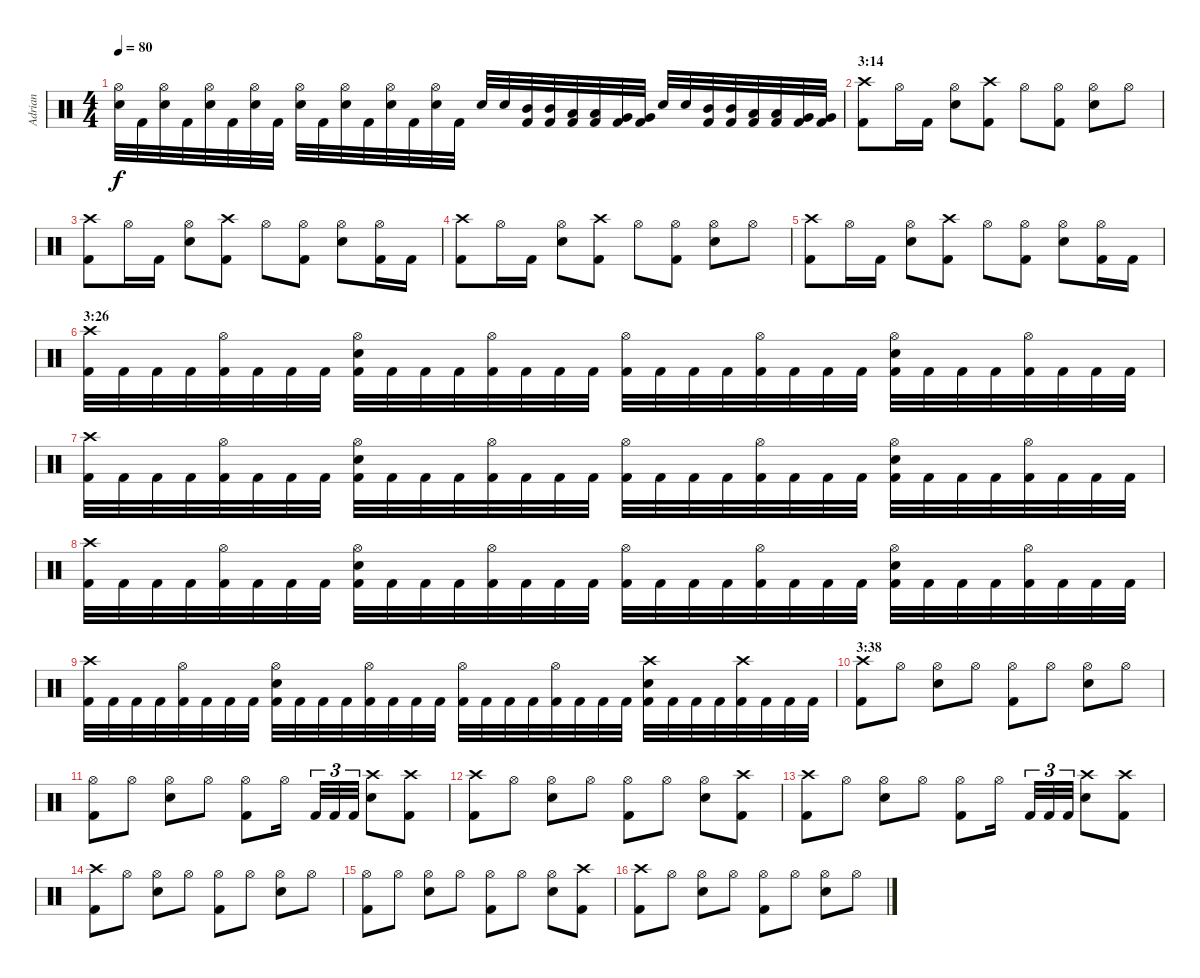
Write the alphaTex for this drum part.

\track ("Adrian" "Adrian") {instrument percussion}
\staff {score}
\articulation defaults
\ts (4 4)
\tempo 80
\clef neutral
\ks c
("Snare (hit) 2" "Hi-Hat (open)").32{dy f} "Kick (hit) 2".32 ("Snare (hit) 2" "Hi-Hat (open)").32 "Kick (hit) 2".32 ("Snare (hit) 2" "Hi-Hat (open)").32 "Kick (hit) 2".32 ("Snare (hit) 2" "Hi-Hat (open)").32 "Kick (hit) 2".32 ("Snare (hit) 2" "Hi-Hat (open)").32 "Kick (hit) 2".32 ("Snare (hit) 2" "Hi-Hat (open)").32 "Kick (hit) 2".32 ("Snare (hit) 2" "Hi-Hat (open)").32 "Kick (hit) 2".32 ("Snare (hit) 2" "Hi-Hat (open)").32 "Kick (hit) 2".32 "Snare (hit) 2".32 "Snare (hit) 2".32 ("Kick (hit) 2" "Mid Tom (hit)").32 ("Kick (hit) 2" "Mid Tom (hit)").32 ("Kick (hit) 2" "Low Tom (hit)").32 ("Kick (hit) 2" "Low Tom (hit)").32 ("Kick (hit) 2" "Very Low Tom (hit)").32 ("Kick (hit) 2" "Very Low Tom (hit)").32 "Snare (hit) 2".32 "Snare (hit) 2".32 ("Kick (hit) 2" "Mid Tom (hit)").32 ("Kick (hit) 2" "Mid Tom (hit)").32 ("Kick (hit) 2" "Low Tom (hit)").32 ("Kick (hit) 2" "Low Tom (hit)").32 ("Kick (hit) 2" "Very Low Tom (hit)").32 ("Kick (hit) 2" "Very Low Tom (hit)").32 |
\section ("" "3:14")
("Kick (hit) 2" "Crash high (hit)").8 "Hi-Hat (open)".16 "Kick (hit) 2".16 ("Snare (hit) 2" "Hi-Hat (open)").8 ("Kick (hit) 2" "Crash high (hit)").8 "Hi-Hat (open)".8 ("Kick (hit) 2" "Hi-Hat (open)").8 ("Snare (hit) 2" "Hi-Hat (open)").8 "Hi-Hat (open)".8 |
("Kick (hit) 2" "Crash high (hit)").8 "Hi-Hat (open)".16 "Kick (hit) 2".16 ("Snare (hit) 2" "Hi-Hat (open)").8 ("Kick (hit) 2" "Crash high (hit)").8 "Hi-Hat (open)".8 ("Kick (hit) 2" "Hi-Hat (open)").8 ("Snare (hit) 2" "Hi-Hat (open)").8 ("Kick (hit) 2" "Hi-Hat (open)").16 "Kick (hit) 2".16 |
("Kick (hit) 2" "Crash high (hit)").8 "Hi-Hat (open)".16 "Kick (hit) 2".16 ("Snare (hit) 2" "Hi-Hat (open)").8 ("Kick (hit) 2" "Crash high (hit)").8 "Hi-Hat (open)".8 ("Kick (hit) 2" "Hi-Hat (open)").8 ("Snare (hit) 2" "Hi-Hat (open)").8 "Hi-Hat (open)".8 |
("Kick (hit) 2" "Crash high (hit)").8 "Hi-Hat (open)".16 "Kick (hit) 2".16 ("Snare (hit) 2" "Hi-Hat (open)").8 ("Kick (hit) 2" "Crash high (hit)").8 "Hi-Hat (open)".8 ("Kick (hit) 2" "Hi-Hat (open)").8 ("Snare (hit) 2" "Hi-Hat (open)").8 ("Kick (hit) 2" "Hi-Hat (open)").16 "Kick (hit) 2".16 |
\section ("" "3:26")
("Kick (hit) 2" "Crash high (hit)").32 "Kick (hit) 2".32 "Kick (hit) 2".32 "Kick (hit) 2".32 ("Kick (hit) 2" "Hi-Hat (open)").32 "Kick (hit) 2".32 "Kick (hit) 2".32 "Kick (hit) 2".32 ("Kick (hit) 2" "Snare (hit) 2" "Hi-Hat (open)").32 "Kick (hit) 2".32 "Kick (hit) 2".32 "Kick (hit) 2".32 ("Kick (hit) 2" "Hi-Hat (open)").32 "Kick (hit) 2".32 "Kick (hit) 2".32 "Kick (hit) 2".32 ("Kick (hit) 2" "Hi-Hat (open)").32 "Kick (hit) 2".32 "Kick (hit) 2".32 "Kick (hit) 2".32 ("Kick (hit) 2" "Hi-Hat (open)").32 "Kick (hit) 2".32 "Kick (hit) 2".32 "Kick (hit) 2".32 ("Kick (hit) 2" "Snare (hit) 2" "Hi-Hat (open)").32 "Kick (hit) 2".32 "Kick (hit) 2".32 "Kick (hit) 2".32 ("Kick (hit) 2" "Hi-Hat (open)").32 "Kick (hit) 2".32 "Kick (hit) 2".32 "Kick (hit) 2".32 |
("Kick (hit) 2" "Crash high (hit)").32 "Kick (hit) 2".32 "Kick (hit) 2".32 "Kick (hit) 2".32 ("Kick (hit) 2" "Hi-Hat (open)").32 "Kick (hit) 2".32 "Kick (hit) 2".32 "Kick (hit) 2".32 ("Kick (hit) 2" "Snare (hit) 2" "Hi-Hat (open)").32 "Kick (hit) 2".32 "Kick (hit) 2".32 "Kick (hit) 2".32 ("Kick (hit) 2" "Hi-Hat (open)").32 "Kick (hit) 2".32 "Kick (hit) 2".32 "Kick (hit) 2".32 ("Kick (hit) 2" "Hi-Hat (open)").32 "Kick (hit) 2".32 "Kick (hit) 2".32 "Kick (hit) 2".32 ("Kick (hit) 2" "Hi-Hat (open)").32 "Kick (hit) 2".32 "Kick (hit) 2".32 "Kick (hit) 2".32 ("Kick (hit) 2" "Snare (hit) 2" "Hi-Hat (open)").32 "Kick (hit) 2".32 "Kick (hit) 2".32 "Kick (hit) 2".32 ("Kick (hit) 2" "Hi-Hat (open)").32 "Kick (hit) 2".32 "Kick (hit) 2".32 "Kick (hit) 2".32 |
("Kick (hit) 2" "Crash high (hit)").32 "Kick (hit) 2".32 "Kick (hit) 2".32 "Kick (hit) 2".32 ("Kick (hit) 2" "Hi-Hat (open)").32 "Kick (hit) 2".32 "Kick (hit) 2".32 "Kick (hit) 2".32 ("Kick (hit) 2" "Snare (hit) 2" "Hi-Hat (open)").32 "Kick (hit) 2".32 "Kick (hit) 2".32 "Kick (hit) 2".32 ("Kick (hit) 2" "Hi-Hat (open)").32 "Kick (hit) 2".32 "Kick (hit) 2".32 "Kick (hit) 2".32 ("Kick (hit) 2" "Hi-Hat (open)").32 "Kick (hit) 2".32 "Kick (hit) 2".32 "Kick (hit) 2".32 ("Kick (hit) 2" "Hi-Hat (open)").32 "Kick (hit) 2".32 "Kick (hit) 2".32 "Kick (hit) 2".32 ("Kick (hit) 2" "Snare (hit) 2" "Hi-Hat (open)").32 "Kick (hit) 2".32 "Kick (hit) 2".32 "Kick (hit) 2".32 ("Kick (hit) 2" "Hi-Hat (open)").32 "Kick (hit) 2".32 "Kick (hit) 2".32 "Kick (hit) 2".32 |
("Kick (hit) 2" "Crash high (hit)").32 "Kick (hit) 2".32 "Kick (hit) 2".32 "Kick (hit) 2".32 ("Kick (hit) 2" "Hi-Hat (open)").32 "Kick (hit) 2".32 "Kick (hit) 2".32 "Kick (hit) 2".32 ("Kick (hit) 2" "Snare (hit) 2" "Hi-Hat (open)").32 "Kick (hit) 2".32 "Kick (hit) 2".32 "Kick (hit) 2".32 ("Kick (hit) 2" "Hi-Hat (open)").32 "Kick (hit) 2".32 "Kick (hit) 2".32 "Kick (hit) 2".32 ("Kick (hit) 2" "Hi-Hat (open)").32 "Kick (hit) 2".32 "Kick (hit) 2".32 "Kick (hit) 2".32 ("Kick (hit) 2" "Hi-Hat (open)").32 "Kick (hit) 2".32 "Kick (hit) 2".32 "Kick (hit) 2".32 ("Kick (hit) 2" "Snare (hit) 2" "Crash high (hit)").32 "Kick (hit) 2".32 "Kick (hit) 2".32 "Kick (hit) 2".32 ("Kick (hit) 2" "Crash high (hit)").32 "Kick (hit) 2".32 "Kick (hit) 2".32 "Kick (hit) 2".32 |
\section ("" "3:38")
("Kick (hit) 2" "Crash high (hit)").8 "Hi-Hat (open)".8 ("Snare (hit) 2" "Hi-Hat (open)").8 "Hi-Hat (open)".8 ("Kick (hit) 2" "Hi-Hat (open)").8 "Hi-Hat (open)".8 ("Snare (hit) 2" "Hi-Hat (open)").8 "Hi-Hat (open)".8 |
("Kick (hit) 2" "Hi-Hat (open)").8 "Hi-Hat (open)".8 ("Snare (hit) 2" "Hi-Hat (open)").8 "Hi-Hat (open)".8 ("Kick (hit) 2" "Hi-Hat (open)").8 "Hi-Hat (open)".16 "Kick (hit) 2".32{tu (3 2)} "Kick (hit) 2".32{tu (3 2)} "Kick (hit) 2".32{tu (3 2)} ("Snare (hit) 2" "Crash high (hit)").8 ("Kick (hit) 2" "Crash high (hit)").8 |
("Kick (hit) 2" "Crash high (hit)").8 "Hi-Hat (open)".8 ("Snare (hit) 2" "Hi-Hat (open)").8 "Hi-Hat (open)".8 ("Kick (hit) 2" "Hi-Hat (open)").8 "Hi-Hat (open)".8 ("Snare (hit) 2" "Hi-Hat (open)").8 ("Kick (hit) 2" "Crash high (hit)").8 |
("Kick (hit) 2" "Crash high (hit)").8 "Hi-Hat (open)".8 ("Snare (hit) 2" "Hi-Hat (open)").8 "Hi-Hat (open)".8 ("Kick (hit) 2" "Hi-Hat (open)").8 "Hi-Hat (open)".16 "Kick (hit) 2".32{tu (3 2)} "Kick (hit) 2".32{tu (3 2)} "Kick (hit) 2".32{tu (3 2)} ("Snare (hit) 2" "Crash high (hit)").8 ("Kick (hit) 2" "Crash high (hit)").8 |
("Kick (hit) 2" "Crash high (hit)").8 "Hi-Hat (open)".8 ("Snare (hit) 2" "Hi-Hat (open)").8 "Hi-Hat (open)".8 ("Kick (hit) 2" "Hi-Hat (open)").8 "Hi-Hat (open)".8 ("Snare (hit) 2" "Hi-Hat (open)").8 "Hi-Hat (open)".8 |
("Kick (hit) 2" "Hi-Hat (open)").8 "Hi-Hat (open)".8 ("Snare (hit) 2" "Hi-Hat (open)").8 "Hi-Hat (open)".8 ("Kick (hit) 2" "Hi-Hat (open)").8 "Hi-Hat (open)".8 ("Snare (hit) 2" "Hi-Hat (open)").8 ("Kick (hit) 2" "Crash high (hit)").8 |
("Kick (hit) 2" "Crash high (hit)").8 "Hi-Hat (open)".8 ("Snare (hit) 2" "Hi-Hat (open)").8 "Hi-Hat (open)".8 ("Kick (hit) 2" "Hi-Hat (open)").8 "Hi-Hat (open)".8 ("Snare (hit) 2" "Hi-Hat (open)").8 "Hi-Hat (open)".8
